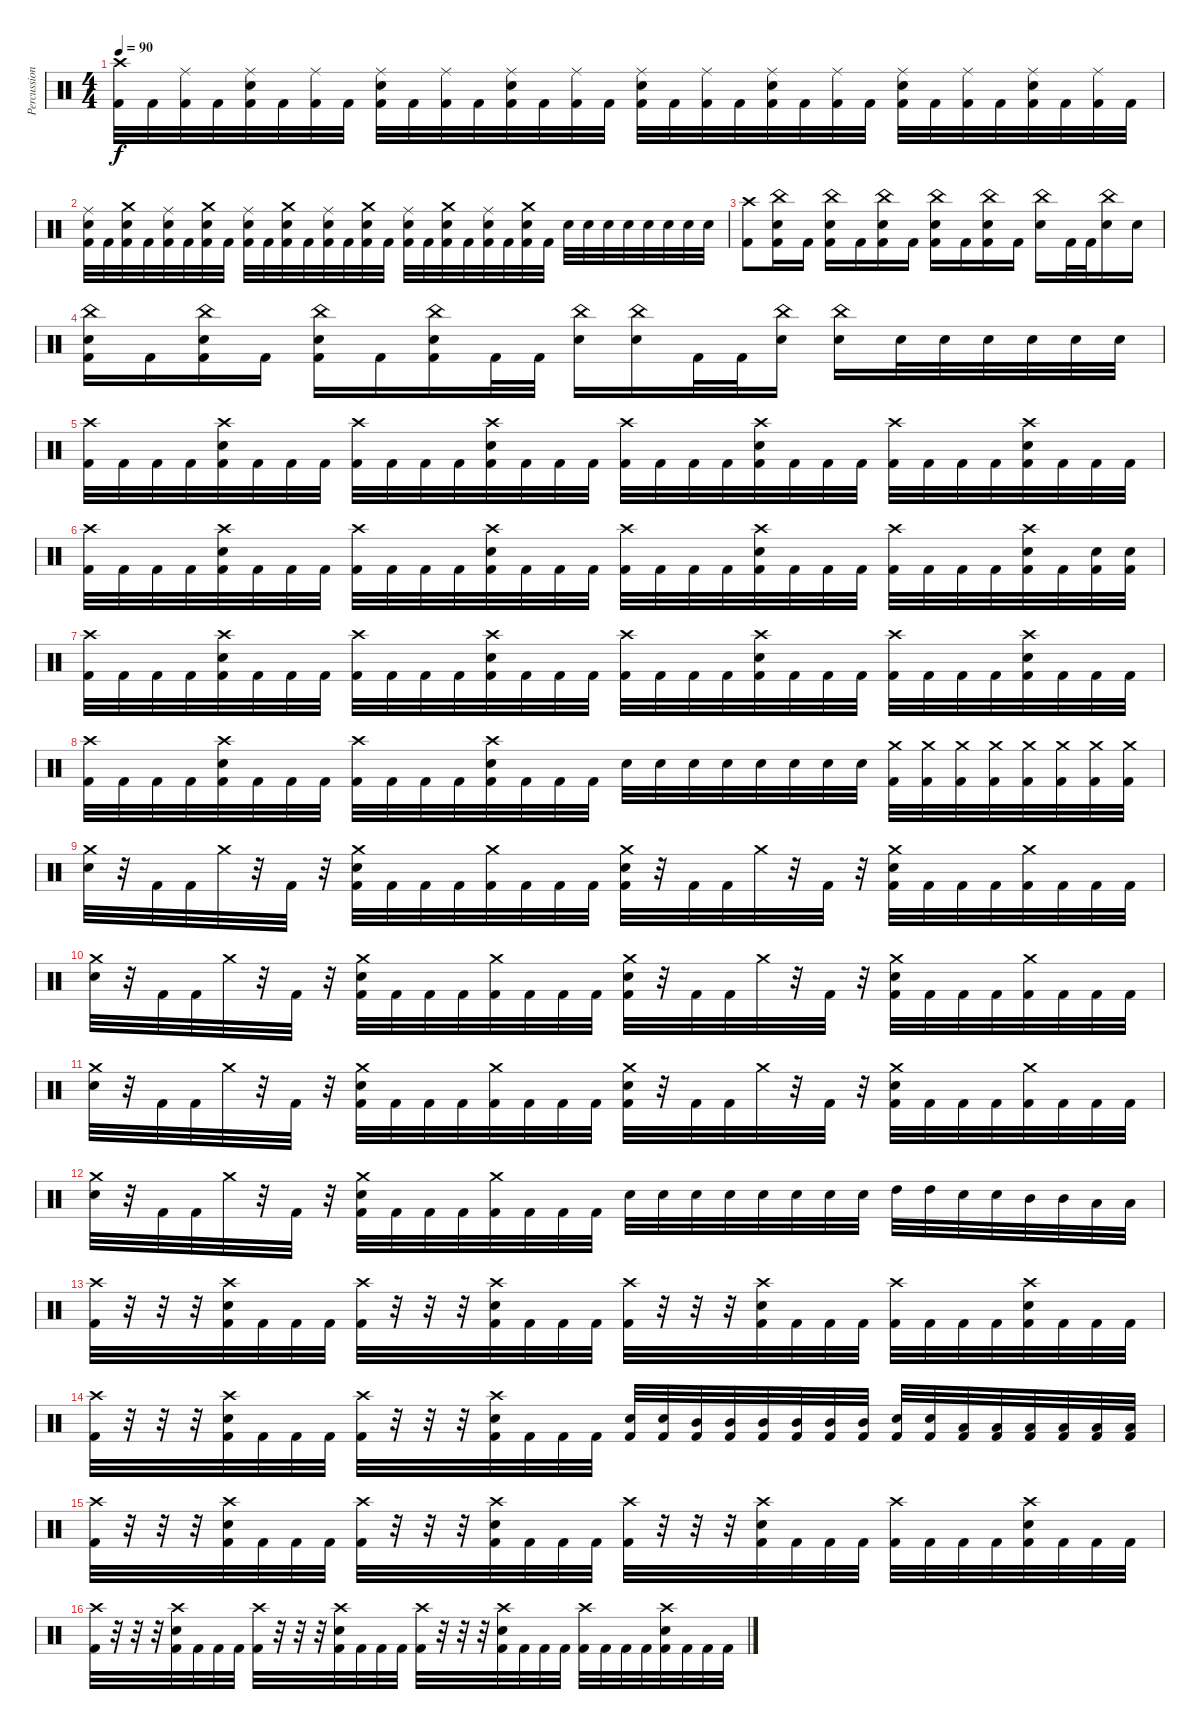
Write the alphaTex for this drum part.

\track ("Percussion" "Percussion") {instrument percussion}
\staff {score}
\articulation defaults
\ts (4 4)
\tempo 90
\clef neutral
\ks c
("Crash high (hit)" "Kick (hit) 2").32{dy f} "Kick (hit) 2".32 ("Ride (middle)" "Kick (hit) 2").32 "Kick (hit) 2".32 ("Ride (middle)" "Electric Snare (hit)" "Kick (hit) 2").32 "Kick (hit) 2".32 ("Ride (middle)" "Kick (hit) 2").32 "Kick (hit) 2".32 ("Ride (middle)" "Electric Snare (hit)" "Kick (hit) 2").32 "Kick (hit) 2".32 ("Ride (middle)" "Kick (hit) 2").32 "Kick (hit) 2".32 ("Ride (middle)" "Electric Snare (hit)" "Kick (hit) 2").32 "Kick (hit) 2".32 ("Ride (middle)" "Kick (hit) 2").32 "Kick (hit) 2".32 ("Ride (middle)" "Electric Snare (hit)" "Kick (hit) 2").32 "Kick (hit) 2".32 ("Ride (middle)" "Kick (hit) 2").32 "Kick (hit) 2".32 ("Ride (middle)" "Electric Snare (hit)" "Kick (hit) 2").32 "Kick (hit) 2".32 ("Ride (middle)" "Kick (hit) 2").32 "Kick (hit) 2".32 ("Ride (middle)" "Electric Snare (hit)" "Kick (hit) 2").32 "Kick (hit) 2".32 ("Ride (middle)" "Kick (hit) 2").32 "Kick (hit) 2".32 ("Ride (middle)" "Electric Snare (hit)" "Kick (hit) 2").32 "Kick (hit) 2".32 ("Ride (middle)" "Kick (hit) 2").32 "Kick (hit) 2".32 |
("Ride (middle)" "Electric Snare (hit)" "Kick (hit) 2").32 "Kick (hit) 2".32 ("Crash medium (hit)" "Electric Snare (hit)" "Kick (hit) 2").32 "Kick (hit) 2".32 ("Ride (middle)" "Electric Snare (hit)" "Kick (hit) 2").32 "Kick (hit) 2".32 ("Crash medium (hit)" "Electric Snare (hit)" "Kick (hit) 2").32 "Kick (hit) 2".32 ("Ride (middle)" "Electric Snare (hit)" "Kick (hit) 2").32 "Kick (hit) 2".32 ("Crash medium (hit)" "Electric Snare (hit)" "Kick (hit) 2").32 "Kick (hit) 2".32 ("Ride (middle)" "Electric Snare (hit)" "Kick (hit) 2").32 "Kick (hit) 2".32 ("Crash medium (hit)" "Electric Snare (hit)" "Kick (hit) 2").32 "Kick (hit) 2".32 ("Ride (middle)" "Electric Snare (hit)" "Kick (hit) 2").32 "Kick (hit) 2".32 ("Crash medium (hit)" "Electric Snare (hit)" "Kick (hit) 2").32 "Kick (hit) 2".32 ("Ride (middle)" "Electric Snare (hit)" "Kick (hit) 2").32 "Kick (hit) 2".32 ("Crash medium (hit)" "Electric Snare (hit)" "Kick (hit) 2").32 "Kick (hit) 2".32 "Electric Snare (hit)".32 "Electric Snare (hit)".32 "Electric Snare (hit)".32 "Electric Snare (hit)".32 "Electric Snare (hit)".32 "Electric Snare (hit)".32 "Electric Snare (hit)".32 "Electric Snare (hit)".32 |
("Crash high (hit)" "Kick (hit) 2").8 ("China (hit)" "Electric Snare (hit)" "Kick (hit) 2").16 "Kick (hit) 2".16 ("China (hit)" "Electric Snare (hit)" "Kick (hit) 2").16 "Kick (hit) 2".16 ("China (hit)" "Electric Snare (hit)" "Kick (hit) 2").16 "Kick (hit) 2".16 ("China (hit)" "Electric Snare (hit)" "Kick (hit) 2").16 "Kick (hit) 2".16 ("China (hit)" "Electric Snare (hit)" "Kick (hit) 2").16 "Kick (hit) 2".16 ("China (hit)" "Electric Snare (hit)").16 "Kick (hit) 2".32 "Kick (hit) 2".32 ("China (hit)" "Electric Snare (hit)").16 "Electric Snare (hit)".16 |
("China (hit)" "Electric Snare (hit)" "Kick (hit) 2").16 "Kick (hit) 2".16 ("China (hit)" "Electric Snare (hit)" "Kick (hit) 2").16 "Kick (hit) 2".16 ("China (hit)" "Electric Snare (hit)" "Kick (hit) 2").16 "Kick (hit) 2".16 ("China (hit)" "Electric Snare (hit)" "Kick (hit) 2").16 "Kick (hit) 2".32 "Kick (hit) 2".32 ("China (hit)" "Electric Snare (hit)").16 ("China (hit)" "Electric Snare (hit)").16 "Kick (hit) 2".32 "Kick (hit) 2".32 ("China (hit)" "Electric Snare (hit)").16 ("China (hit)" "Electric Snare (hit)").16 "Electric Snare (hit)".32 "Electric Snare (hit)".32 "Electric Snare (hit)".32 "Electric Snare (hit)".32 "Electric Snare (hit)".32 "Electric Snare (hit)".32 |
("Crash high (hit)" "Kick (hit) 2").32 "Kick (hit) 2".32 "Kick (hit) 2".32 "Kick (hit) 2".32 ("Crash high (hit)" "Electric Snare (hit)" "Kick (hit) 2").32 "Kick (hit) 2".32 "Kick (hit) 2".32 "Kick (hit) 2".32 ("Crash high (hit)" "Kick (hit) 2").32 "Kick (hit) 2".32 "Kick (hit) 2".32 "Kick (hit) 2".32 ("Crash high (hit)" "Electric Snare (hit)" "Kick (hit) 2").32 "Kick (hit) 2".32 "Kick (hit) 2".32 "Kick (hit) 2".32 ("Crash high (hit)" "Kick (hit) 2").32 "Kick (hit) 2".32 "Kick (hit) 2".32 "Kick (hit) 2".32 ("Crash high (hit)" "Electric Snare (hit)" "Kick (hit) 2").32 "Kick (hit) 2".32 "Kick (hit) 2".32 "Kick (hit) 2".32 ("Crash high (hit)" "Kick (hit) 2").32 "Kick (hit) 2".32 "Kick (hit) 2".32 "Kick (hit) 2".32 ("Crash high (hit)" "Electric Snare (hit)" "Kick (hit) 2").32 "Kick (hit) 2".32 "Kick (hit) 2".32 "Kick (hit) 2".32 |
("Crash high (hit)" "Kick (hit) 2").32 "Kick (hit) 2".32 "Kick (hit) 2".32 "Kick (hit) 2".32 ("Crash high (hit)" "Electric Snare (hit)" "Kick (hit) 2").32 "Kick (hit) 2".32 "Kick (hit) 2".32 "Kick (hit) 2".32 ("Crash high (hit)" "Kick (hit) 2").32 "Kick (hit) 2".32 "Kick (hit) 2".32 "Kick (hit) 2".32 ("Crash high (hit)" "Electric Snare (hit)" "Kick (hit) 2").32 "Kick (hit) 2".32 "Kick (hit) 2".32 "Kick (hit) 2".32 ("Crash high (hit)" "Kick (hit) 2").32 "Kick (hit) 2".32 "Kick (hit) 2".32 "Kick (hit) 2".32 ("Crash high (hit)" "Electric Snare (hit)" "Kick (hit) 2").32 "Kick (hit) 2".32 "Kick (hit) 2".32 "Kick (hit) 2".32 ("Crash high (hit)" "Kick (hit) 2").32 "Kick (hit) 2".32 "Kick (hit) 2".32 "Kick (hit) 2".32 ("Crash high (hit)" "Electric Snare (hit)" "Kick (hit) 2").32 "Kick (hit) 2".32 ("Electric Snare (hit)" "Kick (hit) 2").32 ("Electric Snare (hit)" "Kick (hit) 2").32 |
("Crash high (hit)" "Kick (hit) 2").32 "Kick (hit) 2".32 "Kick (hit) 2".32 "Kick (hit) 2".32 ("Crash high (hit)" "Electric Snare (hit)" "Kick (hit) 2").32 "Kick (hit) 2".32 "Kick (hit) 2".32 "Kick (hit) 2".32 ("Crash high (hit)" "Kick (hit) 2").32 "Kick (hit) 2".32 "Kick (hit) 2".32 "Kick (hit) 2".32 ("Crash high (hit)" "Electric Snare (hit)" "Kick (hit) 2").32 "Kick (hit) 2".32 "Kick (hit) 2".32 "Kick (hit) 2".32 ("Crash high (hit)" "Kick (hit) 2").32 "Kick (hit) 2".32 "Kick (hit) 2".32 "Kick (hit) 2".32 ("Crash high (hit)" "Electric Snare (hit)" "Kick (hit) 2").32 "Kick (hit) 2".32 "Kick (hit) 2".32 "Kick (hit) 2".32 ("Crash high (hit)" "Kick (hit) 2").32 "Kick (hit) 2".32 "Kick (hit) 2".32 "Kick (hit) 2".32 ("Crash high (hit)" "Electric Snare (hit)" "Kick (hit) 2").32 "Kick (hit) 2".32 "Kick (hit) 2".32 "Kick (hit) 2".32 |
("Crash high (hit)" "Kick (hit) 2").32 "Kick (hit) 2".32 "Kick (hit) 2".32 "Kick (hit) 2".32 ("Crash high (hit)" "Electric Snare (hit)" "Kick (hit) 2").32 "Kick (hit) 2".32 "Kick (hit) 2".32 "Kick (hit) 2".32 ("Crash high (hit)" "Kick (hit) 2").32 "Kick (hit) 2".32 "Kick (hit) 2".32 "Kick (hit) 2".32 ("Crash high (hit)" "Electric Snare (hit)" "Kick (hit) 2").32 "Kick (hit) 2".32 "Kick (hit) 2".32 "Kick (hit) 2".32 "Electric Snare (hit)".32 "Electric Snare (hit)".32 "Electric Snare (hit)".32 "Electric Snare (hit)".32 "Electric Snare (hit)".32 "Electric Snare (hit)".32 "Electric Snare (hit)".32 "Electric Snare (hit)".32 ("Crash medium (hit)" "Kick (hit) 2").32 ("Crash medium (hit)" "Kick (hit) 2").32 ("Crash medium (hit)" "Kick (hit) 2").32 ("Crash medium (hit)" "Kick (hit) 2").32 ("Crash medium (hit)" "Kick (hit) 2").32 ("Crash medium (hit)" "Kick (hit) 2").32 ("Crash medium (hit)" "Kick (hit) 2").32 ("Crash medium (hit)" "Kick (hit) 2").32 |
("Crash medium (hit)" "Electric Snare (hit)").32 r.32 "Kick (hit) 2".32 "Kick (hit) 2".32 "Crash medium (hit)".32 r.32 "Kick (hit) 2".32 r.32 ("Crash medium (hit)" "Electric Snare (hit)" "Kick (hit) 2").32 "Kick (hit) 2".32 "Kick (hit) 2".32 "Kick (hit) 2".32 ("Crash medium (hit)" "Kick (hit) 2").32 "Kick (hit) 2".32 "Kick (hit) 2".32 "Kick (hit) 2".32 ("Crash medium (hit)" "Electric Snare (hit)" "Kick (hit) 2").32 r.32 "Kick (hit) 2".32 "Kick (hit) 2".32 "Crash medium (hit)".32 r.32 "Kick (hit) 2".32 r.32 ("Crash medium (hit)" "Electric Snare (hit)" "Kick (hit) 2").32 "Kick (hit) 2".32 "Kick (hit) 2".32 "Kick (hit) 2".32 ("Crash medium (hit)" "Kick (hit) 2").32 "Kick (hit) 2".32 "Kick (hit) 2".32 "Kick (hit) 2".32 |
("Crash medium (hit)" "Electric Snare (hit)").32 r.32 "Kick (hit) 2".32 "Kick (hit) 2".32 "Crash medium (hit)".32 r.32 "Kick (hit) 2".32 r.32 ("Crash medium (hit)" "Electric Snare (hit)" "Kick (hit) 2").32 "Kick (hit) 2".32 "Kick (hit) 2".32 "Kick (hit) 2".32 ("Crash medium (hit)" "Kick (hit) 2").32 "Kick (hit) 2".32 "Kick (hit) 2".32 "Kick (hit) 2".32 ("Crash medium (hit)" "Electric Snare (hit)" "Kick (hit) 2").32 r.32 "Kick (hit) 2".32 "Kick (hit) 2".32 "Crash medium (hit)".32 r.32 "Kick (hit) 2".32 r.32 ("Crash medium (hit)" "Electric Snare (hit)" "Kick (hit) 2").32 "Kick (hit) 2".32 "Kick (hit) 2".32 "Kick (hit) 2".32 ("Crash medium (hit)" "Kick (hit) 2").32 "Kick (hit) 2".32 "Kick (hit) 2".32 "Kick (hit) 2".32 |
("Crash medium (hit)" "Electric Snare (hit)").32 r.32 "Kick (hit) 2".32 "Kick (hit) 2".32 "Crash medium (hit)".32 r.32 "Kick (hit) 2".32 r.32 ("Crash medium (hit)" "Electric Snare (hit)" "Kick (hit) 2").32 "Kick (hit) 2".32 "Kick (hit) 2".32 "Kick (hit) 2".32 ("Crash medium (hit)" "Kick (hit) 2").32 "Kick (hit) 2".32 "Kick (hit) 2".32 "Kick (hit) 2".32 ("Crash medium (hit)" "Electric Snare (hit)" "Kick (hit) 2").32 r.32 "Kick (hit) 2".32 "Kick (hit) 2".32 "Crash medium (hit)".32 r.32 "Kick (hit) 2".32 r.32 ("Crash medium (hit)" "Electric Snare (hit)" "Kick (hit) 2").32 "Kick (hit) 2".32 "Kick (hit) 2".32 "Kick (hit) 2".32 ("Crash medium (hit)" "Kick (hit) 2").32 "Kick (hit) 2".32 "Kick (hit) 2".32 "Kick (hit) 2".32 |
("Crash medium (hit)" "Electric Snare (hit)").32 r.32 "Kick (hit) 2".32 "Kick (hit) 2".32 "Crash medium (hit)".32 r.32 "Kick (hit) 2".32 r.32 ("Crash medium (hit)" "Electric Snare (hit)" "Kick (hit) 2").32 "Kick (hit) 2".32 "Kick (hit) 2".32 "Kick (hit) 2".32 ("Crash medium (hit)" "Kick (hit) 2").32 "Kick (hit) 2".32 "Kick (hit) 2".32 "Kick (hit) 2".32 "Electric Snare (hit)".32 "Electric Snare (hit)".32 "Electric Snare (hit)".32 "Electric Snare (hit)".32 "Electric Snare (hit)".32 "Electric Snare (hit)".32 "Electric Snare (hit)".32 "Electric Snare (hit)".32 "High Tom (hit)".32 "High Tom (hit)".32 "Electric Snare (hit)".32 "Electric Snare (hit)".32 "Mid Tom (hit)".32 "Mid Tom (hit)".32 "Low Tom (hit)".32 "Low Tom (hit)".32 |
("Crash high (hit)" "Kick (hit) 2").32 r.32 r.32 r.32 ("Crash high (hit)" "Electric Snare (hit)" "Kick (hit) 2").32 "Kick (hit) 2".32 "Kick (hit) 2".32 "Kick (hit) 2".32 ("Crash high (hit)" "Kick (hit) 2").32 r.32 r.32 r.32 ("Crash high (hit)" "Electric Snare (hit)" "Kick (hit) 2").32 "Kick (hit) 2".32 "Kick (hit) 2".32 "Kick (hit) 2".32 ("Crash high (hit)" "Kick (hit) 2").32 r.32 r.32 r.32 ("Crash high (hit)" "Electric Snare (hit)" "Kick (hit) 2").32 "Kick (hit) 2".32 "Kick (hit) 2".32 "Kick (hit) 2".32 ("Crash high (hit)" "Kick (hit) 2").32 "Kick (hit) 2".32 "Kick (hit) 2".32 "Kick (hit) 2".32 ("Crash high (hit)" "Electric Snare (hit)" "Kick (hit) 2").32 "Kick (hit) 2".32 "Kick (hit) 2".32 "Kick (hit) 2".32 |
("Crash high (hit)" "Kick (hit) 2").32 r.32 r.32 r.32 ("Crash high (hit)" "Electric Snare (hit)" "Kick (hit) 2").32 "Kick (hit) 2".32 "Kick (hit) 2".32 "Kick (hit) 2".32 ("Crash high (hit)" "Kick (hit) 2").32 r.32 r.32 r.32 ("Crash high (hit)" "Electric Snare (hit)" "Kick (hit) 2").32 "Kick (hit) 2".32 "Kick (hit) 2".32 "Kick (hit) 2".32 ("Electric Snare (hit)" "Kick (hit) 2").32 ("Electric Snare (hit)" "Kick (hit) 2").32 ("Mid Tom (hit)" "Kick (hit) 2").32 ("Mid Tom (hit)" "Kick (hit) 2").32 ("Mid Tom (hit)" "Kick (hit) 2").32 ("Mid Tom (hit)" "Kick (hit) 2").32 ("Mid Tom (hit)" "Kick (hit) 2").32 ("Mid Tom (hit)" "Kick (hit) 2").32 ("Electric Snare (hit)" "Kick (hit) 2").32 ("Electric Snare (hit)" "Kick (hit) 2").32 ("Low Tom (hit)" "Kick (hit) 2").32 ("Low Tom (hit)" "Kick (hit) 2").32 ("Low Tom (hit)" "Kick (hit) 2").32 ("Low Tom (hit)" "Kick (hit) 2").32 ("Low Tom (hit)" "Kick (hit) 2").32 ("Low Tom (hit)" "Kick (hit) 2").32 |
("Crash high (hit)" "Kick (hit) 2").32 r.32 r.32 r.32 ("Crash high (hit)" "Electric Snare (hit)" "Kick (hit) 2").32 "Kick (hit) 2".32 "Kick (hit) 2".32 "Kick (hit) 2".32 ("Crash high (hit)" "Kick (hit) 2").32 r.32 r.32 r.32 ("Crash high (hit)" "Electric Snare (hit)" "Kick (hit) 2").32 "Kick (hit) 2".32 "Kick (hit) 2".32 "Kick (hit) 2".32 ("Crash high (hit)" "Kick (hit) 2").32 r.32 r.32 r.32 ("Crash high (hit)" "Electric Snare (hit)" "Kick (hit) 2").32 "Kick (hit) 2".32 "Kick (hit) 2".32 "Kick (hit) 2".32 ("Crash high (hit)" "Kick (hit) 2").32 "Kick (hit) 2".32 "Kick (hit) 2".32 "Kick (hit) 2".32 ("Crash high (hit)" "Electric Snare (hit)" "Kick (hit) 2").32 "Kick (hit) 2".32 "Kick (hit) 2".32 "Kick (hit) 2".32 |
("Crash high (hit)" "Kick (hit) 2").32 r.32 r.32 r.32 ("Crash high (hit)" "Electric Snare (hit)" "Kick (hit) 2").32 "Kick (hit) 2".32 "Kick (hit) 2".32 "Kick (hit) 2".32 ("Crash high (hit)" "Kick (hit) 2").32 r.32 r.32 r.32 ("Crash high (hit)" "Electric Snare (hit)" "Kick (hit) 2").32 "Kick (hit) 2".32 "Kick (hit) 2".32 "Kick (hit) 2".32 ("Crash high (hit)" "Kick (hit) 2").32 r.32 r.32 r.32 ("Crash high (hit)" "Electric Snare (hit)" "Kick (hit) 2").32 "Kick (hit) 2".32 "Kick (hit) 2".32 "Kick (hit) 2".32 ("Crash high (hit)" "Kick (hit) 2").32 "Kick (hit) 2".32 "Kick (hit) 2".32 "Kick (hit) 2".32 ("Crash high (hit)" "Electric Snare (hit)" "Kick (hit) 2").32 "Kick (hit) 2".32 "Kick (hit) 2".32 "Kick (hit) 2".32
